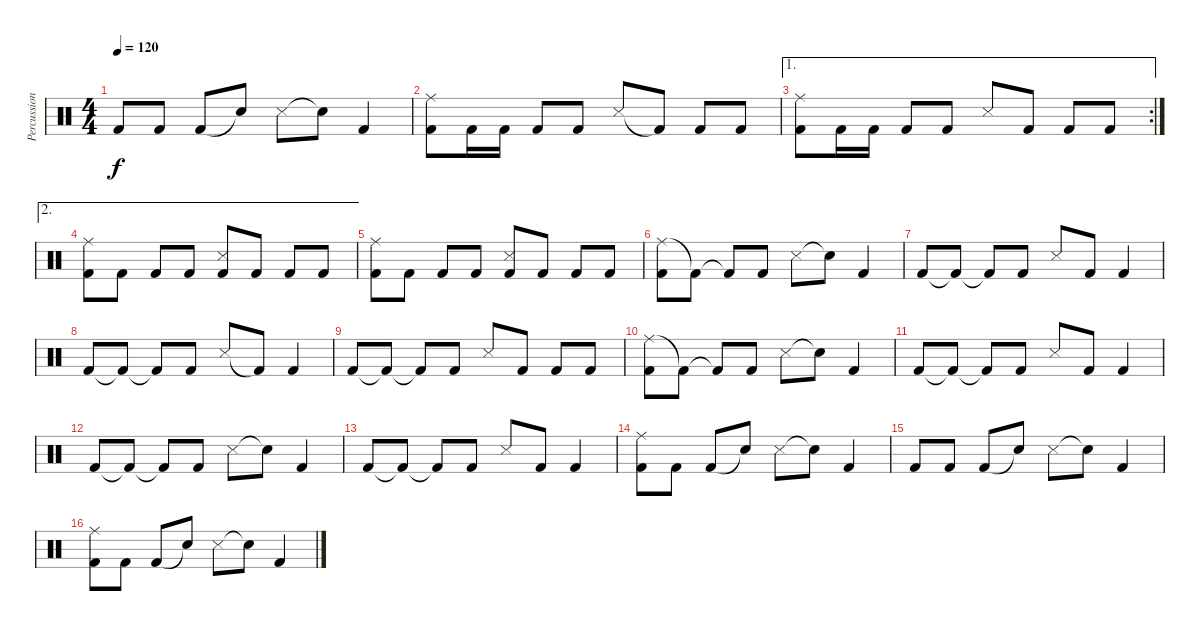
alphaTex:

\track ("Percussion" "Percussion") {instrument percussion}
\staff {score}
\articulation defaults
\ts (4 4)
\tempo 120
\clef neutral
\ks c "Kick (hit) 2".8{dy f} "Kick (hit) 2".8 "Kick (hit) 2".8 "Snare (hit)"{t}.8 "Snare (side stick) 3".8 "Snare (hit)"{t}.8 "Kick (hit) 2".4
|
("Ride (middle)" "Kick (hit) 2").8 "Kick (hit) 2".16 "Kick (hit) 2".16 "Kick (hit) 2".8 "Kick (hit) 2".8 "Snare (side stick) 3".8 "Kick (hit) 2"{t}.8 "Kick (hit) 2".8 "Kick (hit) 2".8 |
\ae 1
\rc 2
("Ride (middle)" "Kick (hit) 2").8 "Kick (hit) 2".16 "Kick (hit) 2".16 "Kick (hit) 2".8 "Kick (hit) 2".8 "Snare (side stick) 3".8 "Kick (hit) 2".8 "Kick (hit) 2".8 "Kick (hit) 2".8 |
\ae 2
("Ride (middle)" "Kick (hit) 2").8 "Kick (hit) 2".8 "Kick (hit) 2".8 "Kick (hit) 2".8 ("Snare (side stick) 3" "Kick (hit) 2").8 "Kick (hit) 2".8 "Kick (hit) 2".8 "Kick (hit) 2".8 |
("Ride (middle)" "Kick (hit) 2").8 "Kick (hit) 2".8 "Kick (hit) 2".8 "Kick (hit) 2".8 ("Snare (side stick) 3" "Kick (hit) 2").8 "Kick (hit) 2".8 "Kick (hit) 2".8 "Kick (hit) 2".8 |
("Ride (middle)" "Kick (hit) 2").8 "Kick (hit) 2"{t}.8 "Kick (hit) 2"{t}.8 "Kick (hit) 2".8 "Snare (side stick) 3".8 "Snare (hit)"{t}.8 "Kick (hit) 2".4 |
"Kick (hit) 2".8 "Kick (hit) 2"{t}.8 "Kick (hit) 2"{t}.8 "Kick (hit) 2".8 "Snare (side stick) 3".8 "Kick (hit) 2".8 "Kick (hit) 2".4 |
"Kick (hit) 2".8 "Kick (hit) 2"{t}.8 "Kick (hit) 2"{t}.8 "Kick (hit) 2".8 "Snare (side stick) 3".8 "Kick (hit) 2"{t}.8 "Kick (hit) 2".4 |
"Kick (hit) 2".8 "Kick (hit) 2"{t}.8 "Kick (hit) 2"{t}.8 "Kick (hit) 2".8 "Snare (side stick) 3".8 "Kick (hit) 2".8 "Kick (hit) 2".8 "Kick (hit) 2".8 |
("Ride (middle)" "Kick (hit) 2").8 "Kick (hit) 2"{t}.8 "Kick (hit) 2"{t}.8 "Kick (hit) 2".8 "Snare (side stick) 3".8 "Snare (hit)"{t}.8 "Kick (hit) 2".4 |
"Kick (hit) 2".8 "Kick (hit) 2"{t}.8 "Kick (hit) 2"{t}.8 "Kick (hit) 2".8 "Snare (side stick) 3".8 "Kick (hit) 2".8 "Kick (hit) 2".4 |
"Kick (hit) 2".8 "Kick (hit) 2"{t}.8 "Kick (hit) 2"{t}.8 "Kick (hit) 2".8 "Snare (side stick) 3".8 "Snare (hit)"{t}.8 "Kick (hit) 2".4 |
"Kick (hit) 2".8 "Kick (hit) 2"{t}.8 "Kick (hit) 2"{t}.8 "Kick (hit) 2".8 "Snare (side stick) 3".8 "Kick (hit) 2".8 "Kick (hit) 2".4 |
("Ride (middle)" "Kick (hit) 2").8 "Kick (hit) 2".8 "Kick (hit) 2".8 "Snare (hit)"{t}.8 "Snare (side stick) 3".8 "Snare (hit)"{t}.8 "Kick (hit) 2".4 |
"Kick (hit) 2".8 "Kick (hit) 2".8 "Kick (hit) 2".8 "Snare (hit)"{t}.8 "Snare (side stick) 3".8 "Snare (hit)"{t}.8 "Kick (hit) 2".4 |
("Ride (middle)" "Kick (hit) 2").8 "Kick (hit) 2".8 "Kick (hit) 2".8 "Snare (hit)"{t}.8 "Snare (side stick) 3".8 "Snare (hit)"{t}.8 "Kick (hit) 2".4
